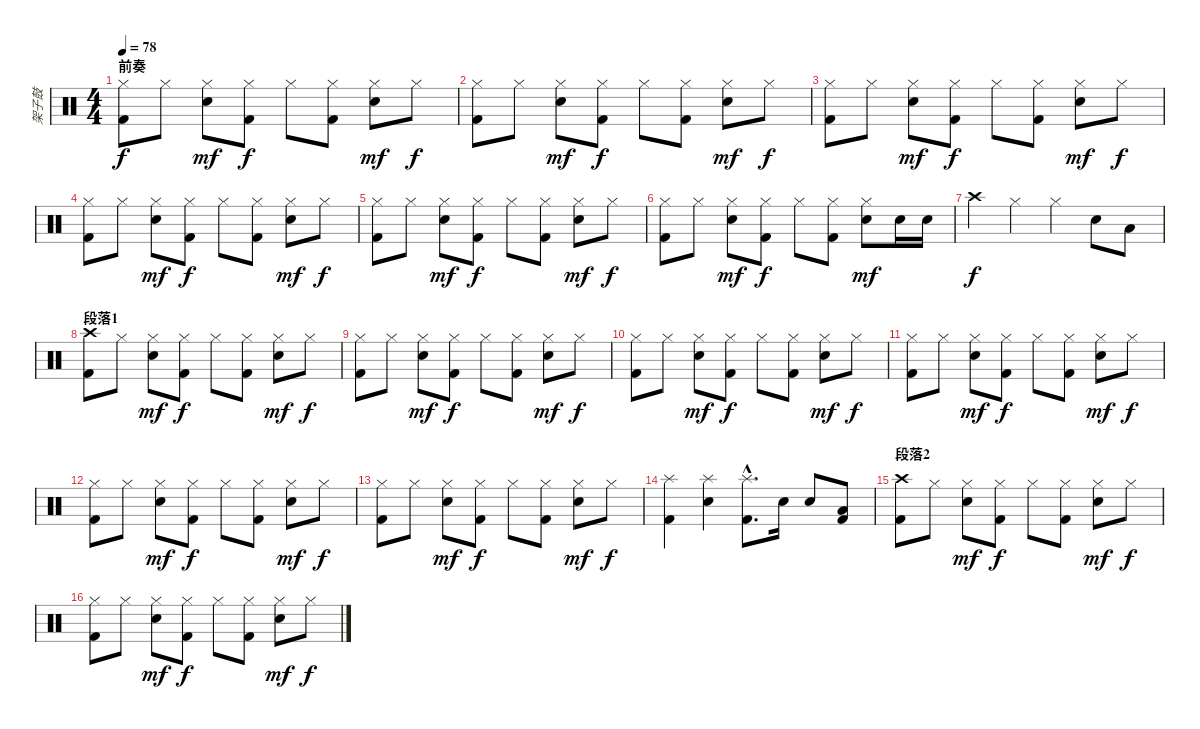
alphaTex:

\track ("架子鼓" "架子鼓") {instrument percussion}
\staff {score}
\articulation defaults
\ts (4 4)
\section ("" "前奏")
\tempo 78
\clef neutral
\ks c
("Hi-Hat (closed)" "Kick (hit) 2").8{dy f} "Hi-Hat (closed)".8 ("Hi-Hat (closed)" "Electric Snare (hit)").8{dy mf} ("Hi-Hat (closed)" "Kick (hit) 2").8{dy f} "Hi-Hat (closed)".8 ("Hi-Hat (closed)" "Kick (hit) 2").8 ("Hi-Hat (closed)" "Electric Snare (hit)").8{dy mf} "Hi-Hat (closed)".8{dy f} |
("Hi-Hat (closed)" "Kick (hit) 2").8 "Hi-Hat (closed)".8 ("Hi-Hat (closed)" "Electric Snare (hit)").8{dy mf} ("Hi-Hat (closed)" "Kick (hit) 2").8{dy f} "Hi-Hat (closed)".8 ("Hi-Hat (closed)" "Kick (hit) 2").8 ("Hi-Hat (closed)" "Electric Snare (hit)").8{dy mf} "Hi-Hat (closed)".8{dy f} |
("Hi-Hat (closed)" "Kick (hit) 2").8 "Hi-Hat (closed)".8 ("Hi-Hat (closed)" "Electric Snare (hit)").8{dy mf} ("Hi-Hat (closed)" "Kick (hit) 2").8{dy f} "Hi-Hat (closed)".8 ("Hi-Hat (closed)" "Kick (hit) 2").8 ("Hi-Hat (closed)" "Electric Snare (hit)").8{dy mf} "Hi-Hat (closed)".8{dy f} |
("Hi-Hat (closed)" "Kick (hit) 2").8 "Hi-Hat (closed)".8 ("Hi-Hat (closed)" "Electric Snare (hit)").8{dy mf} ("Hi-Hat (closed)" "Kick (hit) 2").8{dy f} "Hi-Hat (closed)".8 ("Hi-Hat (closed)" "Kick (hit) 2").8 ("Hi-Hat (closed)" "Electric Snare (hit)").8{dy mf} "Hi-Hat (closed)".8{dy f} |
("Hi-Hat (closed)" "Kick (hit) 2").8 "Hi-Hat (closed)".8 ("Hi-Hat (closed)" "Electric Snare (hit)").8{dy mf} ("Hi-Hat (closed)" "Kick (hit) 2").8{dy f} "Hi-Hat (closed)".8 ("Hi-Hat (closed)" "Kick (hit) 2").8 ("Hi-Hat (closed)" "Electric Snare (hit)").8{dy mf} "Hi-Hat (closed)".8{dy f} |
("Hi-Hat (closed)" "Kick (hit) 2").8 "Hi-Hat (closed)".8 ("Hi-Hat (closed)" "Electric Snare (hit)").8{dy mf} ("Hi-Hat (closed)" "Kick (hit) 2").8{dy f} "Hi-Hat (closed)".8 ("Hi-Hat (closed)" "Kick (hit) 2").8 ("Hi-Hat (closed)" "Electric Snare (hit)").8{dy mf} "Electric Snare (hit)".16 "Electric Snare (hit)".16 |
"Crash high (hit)".4{dy f} "Hi-Hat (closed)".4 "Hi-Hat (closed)".4 "Electric Snare (hit)".8 "Low Tom (hit)".8 |
\section ("" "段落1")
("Crash high (hit)" "Kick (hit) 2").8 "Hi-Hat (closed)".8 ("Hi-Hat (closed)" "Electric Snare (hit)").8{dy mf} ("Hi-Hat (closed)" "Kick (hit) 2").8{dy f} "Hi-Hat (closed)".8 ("Hi-Hat (closed)" "Kick (hit) 2").8 ("Hi-Hat (closed)" "Electric Snare (hit)").8{dy mf} "Hi-Hat (closed)".8{dy f} |
("Hi-Hat (closed)" "Kick (hit) 2").8 "Hi-Hat (closed)".8 ("Hi-Hat (closed)" "Electric Snare (hit)").8{dy mf} ("Hi-Hat (closed)" "Kick (hit) 2").8{dy f} "Hi-Hat (closed)".8 ("Hi-Hat (closed)" "Kick (hit) 2").8 ("Hi-Hat (closed)" "Electric Snare (hit)").8{dy mf} "Hi-Hat (closed)".8{dy f} |
("Hi-Hat (closed)" "Kick (hit) 2").8 "Hi-Hat (closed)".8 ("Hi-Hat (closed)" "Electric Snare (hit)").8{dy mf} ("Hi-Hat (closed)" "Kick (hit) 2").8{dy f} "Hi-Hat (closed)".8 ("Hi-Hat (closed)" "Kick (hit) 2").8 ("Hi-Hat (closed)" "Electric Snare (hit)").8{dy mf} "Hi-Hat (closed)".8{dy f} |
("Hi-Hat (closed)" "Kick (hit) 2").8 "Hi-Hat (closed)".8 ("Hi-Hat (closed)" "Electric Snare (hit)").8{dy mf} ("Hi-Hat (closed)" "Kick (hit) 2").8{dy f} "Hi-Hat (closed)".8 ("Hi-Hat (closed)" "Kick (hit) 2").8 ("Hi-Hat (closed)" "Electric Snare (hit)").8{dy mf} "Hi-Hat (closed)".8{dy f} |
("Hi-Hat (closed)" "Kick (hit) 2").8 "Hi-Hat (closed)".8 ("Hi-Hat (closed)" "Electric Snare (hit)").8{dy mf} ("Hi-Hat (closed)" "Kick (hit) 2").8{dy f} "Hi-Hat (closed)".8 ("Hi-Hat (closed)" "Kick (hit) 2").8 ("Hi-Hat (closed)" "Electric Snare (hit)").8{dy mf} "Hi-Hat (closed)".8{dy f} |
("Hi-Hat (closed)" "Kick (hit) 2").8 "Hi-Hat (closed)".8 ("Hi-Hat (closed)" "Electric Snare (hit)").8{dy mf} ("Hi-Hat (closed)" "Kick (hit) 2").8{dy f} "Hi-Hat (closed)".8 ("Hi-Hat (closed)" "Kick (hit) 2").8 ("Hi-Hat (closed)" "Electric Snare (hit)").8{dy mf} "Hi-Hat (closed)".8{dy f} |
("Splash (hit)" "Kick (hit) 2").4 ("Splash (hit)" "Electric Snare (hit)").4 ("Splash (hit)"{hac} "Kick (hit) 2"{hac}).8{d} "Electric Snare (hit)".16 "Electric Snare (hit)".8 ("Low Tom (hit)" "Kick (hit) 2").8 |
\section ("" "段落2")
("Crash high (hit)" "Kick (hit) 2").8 "Hi-Hat (closed)".8 ("Hi-Hat (closed)" "Electric Snare (hit)").8{dy mf} ("Hi-Hat (closed)" "Kick (hit) 2").8{dy f} "Hi-Hat (closed)".8 ("Hi-Hat (closed)" "Kick (hit) 2").8 ("Hi-Hat (closed)" "Electric Snare (hit)").8{dy mf} "Hi-Hat (closed)".8{dy f} |
("Hi-Hat (closed)" "Kick (hit) 2").8 "Hi-Hat (closed)".8 ("Hi-Hat (closed)" "Electric Snare (hit)").8{dy mf} ("Hi-Hat (closed)" "Kick (hit) 2").8{dy f} "Hi-Hat (closed)".8 ("Hi-Hat (closed)" "Kick (hit) 2").8 ("Hi-Hat (closed)" "Electric Snare (hit)").8{dy mf} "Hi-Hat (closed)".8{dy f}
